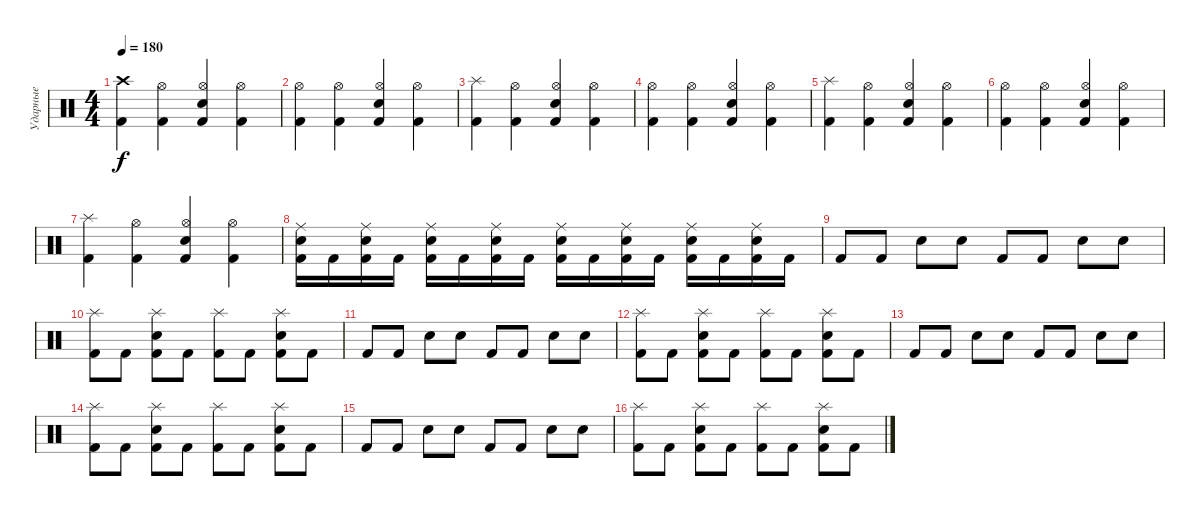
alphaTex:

\track ("Ударные" "Ударные") {instrument percussion}
\staff {score}
\articulation defaults
\ts (4 4)
\tempo 180
\clef neutral
\ks c
("Crash high (hit)" "Kick (hit) 2").4{dy f} ("Hi-Hat (open)" "Kick (hit) 2").4 ("Hi-Hat (open)" "Kick (hit) 2" "Electric Snare (hit)").4 ("Hi-Hat (open)" "Kick (hit) 2").4 |
("Hi-Hat (open)" "Kick (hit) 2").4 ("Hi-Hat (open)" "Kick (hit) 2").4 ("Hi-Hat (open)" "Kick (hit) 2" "Electric Snare (hit)").4 ("Hi-Hat (open)" "Kick (hit) 2").4 |
("Splash (hit)" "Kick (hit) 2").4 ("Hi-Hat (open)" "Kick (hit) 2").4 ("Hi-Hat (open)" "Kick (hit) 2" "Electric Snare (hit)").4 ("Hi-Hat (open)" "Kick (hit) 2").4 |
("Hi-Hat (open)" "Kick (hit) 2").4 ("Hi-Hat (open)" "Kick (hit) 2").4 ("Hi-Hat (open)" "Kick (hit) 2" "Electric Snare (hit)").4 ("Hi-Hat (open)" "Kick (hit) 2").4 |
("Splash (hit)" "Kick (hit) 2").4 ("Hi-Hat (open)" "Kick (hit) 2").4 ("Hi-Hat (open)" "Kick (hit) 2" "Electric Snare (hit)").4 ("Hi-Hat (open)" "Kick (hit) 2").4 |
("Hi-Hat (open)" "Kick (hit) 2").4 ("Hi-Hat (open)" "Kick (hit) 2").4 ("Hi-Hat (open)" "Kick (hit) 2" "Electric Snare (hit)").4 ("Hi-Hat (open)" "Kick (hit) 2").4 |
("Splash (hit)" "Kick (hit) 2").4 ("Hi-Hat (open)" "Kick (hit) 2").4 ("Hi-Hat (open)" "Kick (hit) 2" "Electric Snare (hit)").4 ("Hi-Hat (open)" "Kick (hit) 2").4 |
("Ride (middle)" "Electric Snare (hit)" "Kick (hit) 2").16 "Kick (hit) 2".16 ("Ride (middle)" "Electric Snare (hit)" "Kick (hit) 2").16 "Kick (hit) 2".16 ("Ride (middle)" "Electric Snare (hit)" "Kick (hit) 2").16 "Kick (hit) 2".16 ("Ride (middle)" "Electric Snare (hit)" "Kick (hit) 2").16 "Kick (hit) 2".16 ("Ride (middle)" "Electric Snare (hit)" "Kick (hit) 2").16 "Kick (hit) 2".16 ("Ride (middle)" "Electric Snare (hit)" "Kick (hit) 2").16 "Kick (hit) 2".16 ("Ride (middle)" "Electric Snare (hit)" "Kick (hit) 2").16 "Kick (hit) 2".16 ("Ride (middle)" "Electric Snare (hit)" "Kick (hit) 2").16 "Kick (hit) 2".16 |
"Kick (hit) 2".8 "Kick (hit) 2".8 "Electric Snare (hit)".8 "Electric Snare (hit)".8 "Kick (hit) 2".8 "Kick (hit) 2".8 "Electric Snare (hit)".8 "Electric Snare (hit)".8 |
("Splash (hit)" "Kick (hit) 2").8 "Kick (hit) 2".8 ("Splash (hit)" "Kick (hit) 2" "Electric Snare (hit)").8 "Kick (hit) 2".8 ("Splash (hit)" "Kick (hit) 2").8 "Kick (hit) 2".8 ("Splash (hit)" "Kick (hit) 2" "Electric Snare (hit)").8 "Kick (hit) 2".8 |
"Kick (hit) 2".8 "Kick (hit) 2".8 "Electric Snare (hit)".8 "Electric Snare (hit)".8 "Kick (hit) 2".8 "Kick (hit) 2".8 "Electric Snare (hit)".8 "Electric Snare (hit)".8 |
("Splash (hit)" "Kick (hit) 2").8 "Kick (hit) 2".8 ("Splash (hit)" "Kick (hit) 2" "Electric Snare (hit)").8 "Kick (hit) 2".8 ("Splash (hit)" "Kick (hit) 2").8 "Kick (hit) 2".8 ("Splash (hit)" "Kick (hit) 2" "Electric Snare (hit)").8 "Kick (hit) 2".8 |
"Kick (hit) 2".8 "Kick (hit) 2".8 "Electric Snare (hit)".8 "Electric Snare (hit)".8 "Kick (hit) 2".8 "Kick (hit) 2".8 "Electric Snare (hit)".8 "Electric Snare (hit)".8 |
("Splash (hit)" "Kick (hit) 2").8 "Kick (hit) 2".8 ("Splash (hit)" "Kick (hit) 2" "Electric Snare (hit)").8 "Kick (hit) 2".8 ("Splash (hit)" "Kick (hit) 2").8 "Kick (hit) 2".8 ("Splash (hit)" "Kick (hit) 2" "Electric Snare (hit)").8 "Kick (hit) 2".8 |
"Kick (hit) 2".8 "Kick (hit) 2".8 "Electric Snare (hit)".8 "Electric Snare (hit)".8 "Kick (hit) 2".8 "Kick (hit) 2".8 "Electric Snare (hit)".8 "Electric Snare (hit)".8 |
("Splash (hit)" "Kick (hit) 2").8 "Kick (hit) 2".8 ("Splash (hit)" "Kick (hit) 2" "Electric Snare (hit)").8 "Kick (hit) 2".8 ("Splash (hit)" "Kick (hit) 2").8 "Kick (hit) 2".8 ("Splash (hit)" "Kick (hit) 2" "Electric Snare (hit)").8 "Kick (hit) 2".8
